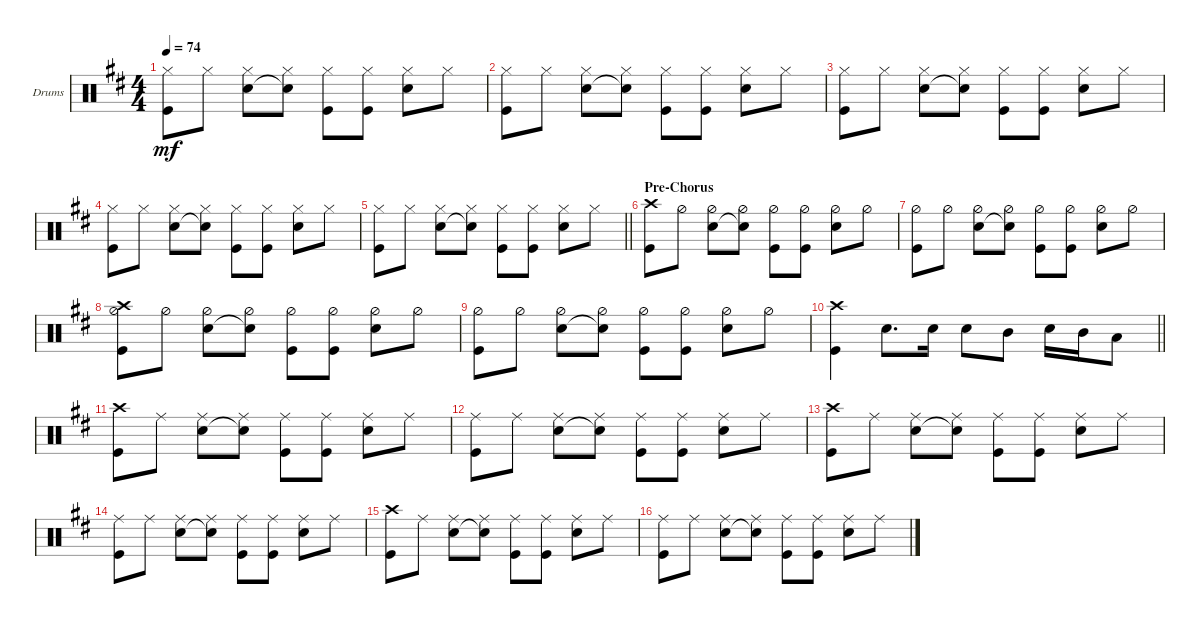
\bracketExtendMode groupsimilarinstruments
\firstSystemTrackNameOrientation horizontal
\otherSystemsTrackNameOrientation horizontal
\track ("Drumkit" "Drums") {instrument percussion}
\staff {score}
\articulation defaults
\ts (4 4)
\tempo 74
\clef neutral
\scale
0.333333
\ks d
("Kick (hit)" "Hi-Hat (closed)").8{dy mf} "Hi-Hat (closed)".8 ("Snare (hit) 2" "Hi-Hat (closed)").8 ("Snare (hit) 2"{t} "Hi-Hat (closed)").8 ("Kick (hit)" "Hi-Hat (closed)").8 ("Kick (hit)" "Hi-Hat (closed)").8 ("Snare (hit) 2" "Hi-Hat (closed)").8 "Hi-Hat (closed)".8 |
\scale
0.333333 ("Kick (hit)" "Hi-Hat (closed)").8 "Hi-Hat (closed)".8 ("Snare (hit) 2" "Hi-Hat (closed)").8 ("Snare (hit) 2"{t} "Hi-Hat (closed)").8 ("Kick (hit)" "Hi-Hat (closed)").8 ("Kick (hit)" "Hi-Hat (closed)").8 ("Snare (hit) 2" "Hi-Hat (closed)").8 "Hi-Hat (closed)".8 |
\scale
0.333333 ("Kick (hit)" "Hi-Hat (closed)").8 "Hi-Hat (closed)".8 ("Snare (hit) 2" "Hi-Hat (closed)").8 ("Snare (hit) 2"{t} "Hi-Hat (closed)").8 ("Kick (hit)" "Hi-Hat (closed)").8 ("Kick (hit)" "Hi-Hat (closed)").8 ("Snare (hit) 2" "Hi-Hat (closed)").8 "Hi-Hat (closed)".8 |
\scale
0.333333 ("Kick (hit)" "Hi-Hat (closed)").8 "Hi-Hat (closed)".8 ("Snare (hit) 2" "Hi-Hat (closed)").8 ("Snare (hit) 2"{t} "Hi-Hat (closed)").8 ("Kick (hit)" "Hi-Hat (closed)").8 ("Kick (hit)" "Hi-Hat (closed)").8 ("Snare (hit) 2" "Hi-Hat (closed)").8 "Hi-Hat (closed)".8 |
\scale
0.333333
\barLineRight lightlight
("Kick (hit)" "Hi-Hat (closed)").8 "Hi-Hat (closed)".8 ("Snare (hit) 2" "Hi-Hat (closed)").8 ("Snare (hit) 2"{t} "Hi-Hat (closed)").8 ("Kick (hit)" "Hi-Hat (closed)").8 ("Kick (hit)" "Hi-Hat (closed)").8 ("Snare (hit) 2" "Hi-Hat (closed)").8 "Hi-Hat (closed)".8 |
\section ("" "Pre-Chorus")
\scale
0.333333 ("Kick (hit)" "Crash high (hit)").8 "Hi-Hat (half)".8 ("Snare (hit) 2" "Hi-Hat (half)").8 ("Snare (hit) 2"{t} "Hi-Hat (half)").8 ("Kick (hit)" "Hi-Hat (half)").8 ("Kick (hit)" "Hi-Hat (half)").8 ("Snare (hit) 2" "Hi-Hat (half)").8 "Hi-Hat (half)".8 |
\scale
0.333333 ("Kick (hit)" "Hi-Hat (half)").8 "Hi-Hat (half)".8 ("Snare (hit) 2" "Hi-Hat (half)").8 ("Snare (hit) 2"{t} "Hi-Hat (half)").8 ("Kick (hit)" "Hi-Hat (half)").8 ("Kick (hit)" "Hi-Hat (half)").8 ("Snare (hit) 2" "Hi-Hat (half)").8 "Hi-Hat (half)".8 |
\scale
0.333333 ("Kick (hit)" "Hi-Hat (half)" "Crash high (hit)").8 "Hi-Hat (half)".8 ("Snare (hit) 2" "Hi-Hat (half)").8 ("Snare (hit) 2"{t} "Hi-Hat (half)").8 ("Kick (hit)" "Hi-Hat (half)").8 ("Kick (hit)" "Hi-Hat (half)").8 ("Snare (hit) 2" "Hi-Hat (half)").8 "Hi-Hat (half)".8 |
\scale
0.333333 ("Kick (hit)" "Hi-Hat (half)").8 "Hi-Hat (half)".8 ("Snare (hit) 2" "Hi-Hat (half)").8 ("Snare (hit) 2"{t} "Hi-Hat (half)").8 ("Kick (hit)" "Hi-Hat (half)").8 ("Kick (hit)" "Hi-Hat (half)").8 ("Snare (hit) 2" "Hi-Hat (half)").8 "Hi-Hat (half)".8 |
\scale
0.333333
\barLineRight lightlight
("Kick (hit)" "Crash high (hit)").4 "Snare (hit) 2".8{d} "Snare (hit) 2".16 "Snare (hit) 2".8 "Mid Tom (hit)".8 "Snare (hit) 2".16 "Mid Tom (hit)".16 "Low Tom (hit)".8 |
\scale
0.333333 ("Kick (hit)" "Crash high (hit)").8 "Ride (middle)".8 ("Snare (hit) 2" "Ride (middle)").8 ("Snare (hit) 2"{t} "Ride (middle)").8 ("Kick (hit)" "Ride (middle)").8 ("Kick (hit)" "Ride (middle)").8 ("Snare (hit) 2" "Ride (middle)").8 "Ride (middle)".8 |
\scale
0.333333 ("Kick (hit)" "Ride (middle)").8 "Ride (middle)".8 ("Snare (hit) 2" "Ride (middle)").8 ("Snare (hit) 2"{t} "Ride (middle)").8 ("Kick (hit)" "Ride (middle)").8 ("Kick (hit)" "Ride (middle)").8 ("Snare (hit) 2" "Ride (middle)").8 "Ride (middle)".8 |
\scale
0.333333 ("Kick (hit)" "Crash high (hit)").8 "Ride (middle)".8 ("Snare (hit) 2" "Ride (middle)").8 ("Snare (hit) 2"{t} "Ride (middle)").8 ("Kick (hit)" "Ride (middle)").8 ("Kick (hit)" "Ride (middle)").8 ("Snare (hit) 2" "Ride (middle)").8 "Ride (middle)".8 |
\scale
0.333333 ("Kick (hit)" "Ride (middle)").8 "Ride (middle)".8 ("Snare (hit) 2" "Ride (middle)").8 ("Snare (hit) 2"{t} "Ride (middle)").8 ("Kick (hit)" "Ride (middle)").8 ("Kick (hit)" "Ride (middle)").8 ("Snare (hit) 2" "Ride (middle)").8 "Ride (middle)".8 |
\scale
0.333333 ("Kick (hit)" "Crash high (hit)").8 "Ride (middle)".8 ("Snare (hit) 2" "Ride (middle)").8 ("Snare (hit) 2"{t} "Ride (middle)").8 ("Kick (hit)" "Ride (middle)").8 ("Kick (hit)" "Ride (middle)").8 ("Snare (hit) 2" "Ride (middle)").8 "Ride (middle)".8 |
\scale
0.333333 ("Kick (hit)" "Ride (middle)").8 "Ride (middle)".8 ("Snare (hit) 2" "Ride (middle)").8 ("Snare (hit) 2"{t} "Ride (middle)").8 ("Kick (hit)" "Ride (middle)").8 ("Kick (hit)" "Ride (middle)").8 ("Snare (hit) 2" "Ride (middle)").8 "Ride (middle)".8
